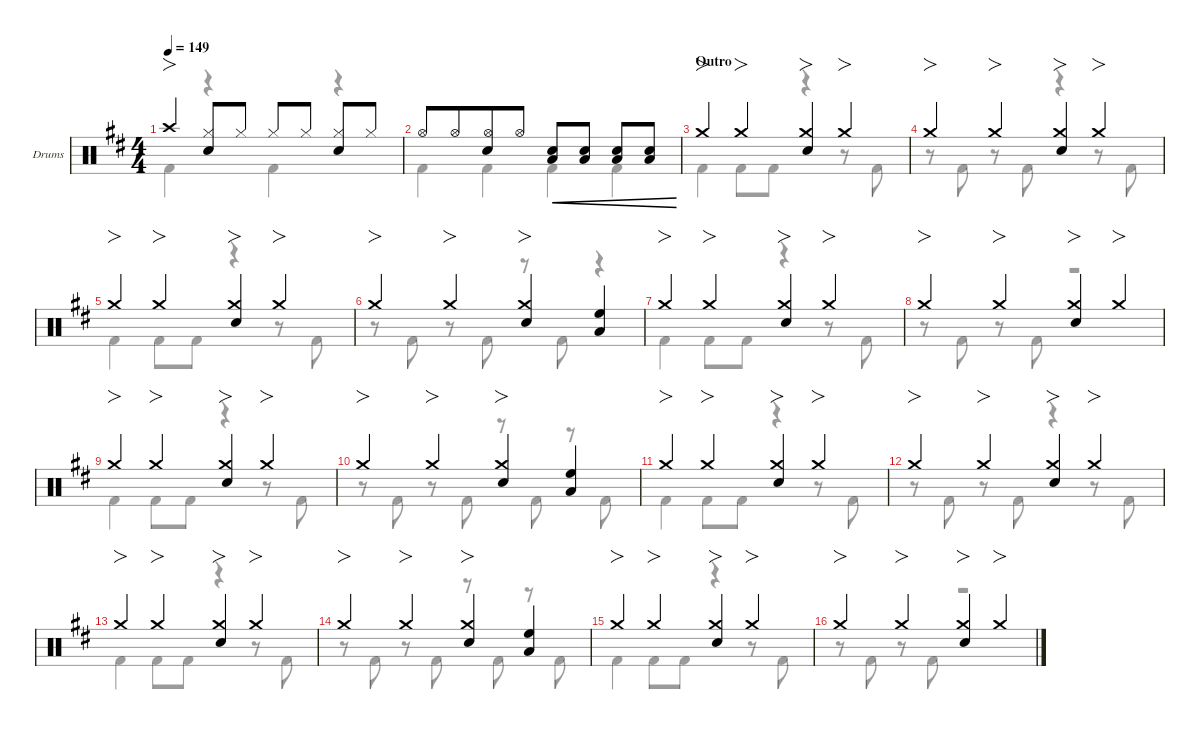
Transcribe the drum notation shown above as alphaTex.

\defaultSystemsLayout 4
\hideDynamics
\bracketExtendMode nobrackets
\firstSystemTrackNameOrientation horizontal
\track ("Drums" "Drums") {defaultSystemsLayout 4 instrument percussion}
\staff {score}
\articulation defaults
\voice
\ts (4 4)
\tempo 149
\clef neutral
\scale
0.511737
\ks d "Crash high (hit)"{acc forcenatural}.4{fo dy f beam Up}
("Hi-Hat (closed)"{acc forcenatural} "Snare (hit) 2"{acc forcenatural}).8{beam Up} "Hi-Hat (closed)"{acc forcenatural}.8{dy mf beam Up} "Hi-Hat (closed)"{acc forcenatural}.8{dy f beam Up} "Hi-Hat (closed)"{acc forcenatural}.8{dy mf beam Up} ("Hi-Hat (closed)"{acc forcenatural} "Snare (hit) 2"{acc forcenatural}).8{dy f beam Up} "Hi-Hat (closed)"{acc forcenatural}.8{dy mf beam Up} |
\scale
0.488263 "Hi-Hat (open)"{acc forcenatural}.8{dy f beam Up beam merge} "Hi-Hat (open)"{acc forcenatural}.8{dy mf beam Up beam merge} ("Hi-Hat (open)"{acc forcenatural} "Snare (hit) 2"{acc forcenatural}).8{dy f beam Up beam merge} "Hi-Hat (open)"{acc forcenatural}.8{dy mf beam Up} ("Snare (hit) 2"{acc forcenatural} "Low Tom (hit)"{acc forcenatural}).8{cre dy mp beam Up} ("Snare (hit) 2"{acc forcenatural} "Low Tom (hit)"{acc forcenatural}).8{cre dy mf beam Up} ("Snare (hit) 2"{acc forcenatural} "Low Tom (hit)"{acc forcenatural}).8{cre dy f beam Up} ("Snare (hit) 2"{acc forcenatural} "Low Tom (hit)"{acc forcenatural}).8{cre beam Up} |
\section ("" "Outro")
\scale
0.267605 "Crash medium (hit)"{acc forcenatural}.4{fo beam Up} "Crash medium (hit)"{acc forcenatural}.4{fo beam Up} ("Crash medium (hit)"{acc forcenatural} "Snare (hit) 2"{acc forcenatural}).4{fo beam Up} "Crash medium (hit)"{acc forcenatural}.4{fo beam Up} |
\scale
0.244132 "Crash medium (hit)"{acc forcenatural}.4{fo beam Up} "Crash medium (hit)"{acc forcenatural}.4{fo beam Up} ("Crash medium (hit)"{acc forcenatural} "Snare (hit) 2"{acc forcenatural}).4{fo beam Up} "Crash medium (hit)"{acc forcenatural}.4{fo beam Up} |
\scale
0.244132 "Crash medium (hit)"{acc forcenatural}.4{fo beam Up} "Crash medium (hit)"{acc forcenatural}.4{fo beam Up} ("Crash medium (hit)"{acc forcenatural} "Snare (hit) 2"{acc forcenatural}).4{fo beam Up} "Crash medium (hit)"{acc forcenatural}.4{fo beam Up} |
\scale
0.244132 "Crash medium (hit)"{acc forcenatural}.4{fo beam Up} "Crash medium (hit)"{acc forcenatural}.4{fo beam Up} ("Crash medium (hit)"{acc forcenatural} "Snare (hit) 2"{acc forcenatural}).4{fo beam Up} ("High Floor Tom (hit)"{acc forcenatural} "Low Tom (hit)"{acc forcenatural}).4{beam Up} |
\scale
0.267605 "Crash medium (hit)"{acc forcenatural}.4{fo beam Up} "Crash medium (hit)"{acc forcenatural}.4{fo beam Up} ("Crash medium (hit)"{acc forcenatural} "Snare (hit) 2"{acc forcenatural}).4{fo beam Up} "Crash medium (hit)"{acc forcenatural}.4{fo beam Up} |
\scale
0.244132 "Crash medium (hit)"{acc forcenatural}.4{fo beam Up} "Crash medium (hit)"{acc forcenatural}.4{fo beam Up} ("Crash medium (hit)"{acc forcenatural} "Snare (hit) 2"{acc forcenatural}).4{fo beam Up} "Crash medium (hit)"{acc forcenatural}.4{fo beam Up} |
\scale
0.244132 "Crash medium (hit)"{acc forcenatural}.4{fo beam Up} "Crash medium (hit)"{acc forcenatural}.4{fo beam Up} ("Crash medium (hit)"{acc forcenatural} "Snare (hit) 2"{acc forcenatural}).4{fo beam Up} "Crash medium (hit)"{acc forcenatural}.4{fo beam Up} |
\scale
0.244132 "Crash medium (hit)"{acc forcenatural}.4{fo beam Up} "Crash medium (hit)"{acc forcenatural}.4{fo beam Up} ("Crash medium (hit)"{acc forcenatural} "Snare (hit) 2"{acc forcenatural}).4{fo beam Up} ("High Floor Tom (hit)"{acc forcenatural} "Low Tom (hit)"{acc forcenatural}).4{beam Up} |
\scale
0.267605 "Crash medium (hit)"{acc forcenatural}.4{fo beam Up} "Crash medium (hit)"{acc forcenatural}.4{fo beam Up} ("Crash medium (hit)"{acc forcenatural} "Snare (hit) 2"{acc forcenatural}).4{fo beam Up} "Crash medium (hit)"{acc forcenatural}.4{fo beam Up} |
\scale
0.244132 "Crash medium (hit)"{acc forcenatural}.4{fo beam Up} "Crash medium (hit)"{acc forcenatural}.4{fo beam Up} ("Crash medium (hit)"{acc forcenatural} "Snare (hit) 2"{acc forcenatural}).4{fo beam Up} "Crash medium (hit)"{acc forcenatural}.4{fo beam Up} |
\scale
0.244132 "Crash medium (hit)"{acc forcenatural}.4{fo beam Up} "Crash medium (hit)"{acc forcenatural}.4{fo beam Up} ("Crash medium (hit)"{acc forcenatural} "Snare (hit) 2"{acc forcenatural}).4{fo beam Up} "Crash medium (hit)"{acc forcenatural}.4{fo beam Up} |
\scale
0.244132 "Crash medium (hit)"{acc forcenatural}.4{fo beam Up} "Crash medium (hit)"{acc forcenatural}.4{fo beam Up} ("Crash medium (hit)"{acc forcenatural} "Snare (hit) 2"{acc forcenatural}).4{fo beam Up} ("High Floor Tom (hit)"{acc forcenatural} "Low Tom (hit)"{acc forcenatural}).4{beam Up} |
\scale
0.267605 "Crash medium (hit)"{acc forcenatural}.4{fo beam Up} "Crash medium (hit)"{acc forcenatural}.4{fo beam Up} ("Crash medium (hit)"{acc forcenatural} "Snare (hit) 2"{acc forcenatural}).4{fo beam Up} "Crash medium (hit)"{acc forcenatural}.4{fo beam Up} |
\scale
0.244132 "Crash medium (hit)"{acc forcenatural}.4{fo beam Up} "Crash medium (hit)"{acc forcenatural}.4{fo beam Up} ("Crash medium (hit)"{acc forcenatural} "Snare (hit) 2"{acc forcenatural}).4{fo beam Up} "Crash medium (hit)"{acc forcenatural}.4{fo beam Up}
\voice
\clef neutral
\ottava regular
\simile none
\scale
0.511737
\ks d "Kick (hit) 2"{acc forcenatural}.4{dy f beam Down}
r.4{beam Down} "Kick (hit) 2"{acc forcenatural}.4{beam Down} r.4{beam Down} |
\scale
0.488263 "Kick (hit) 2"{acc forcenatural}.4{beam Down} "Kick (hit) 2"{acc forcenatural}.4{beam Down} "Kick (hit) 2"{acc forcenatural}.4{beam Down} "Kick (hit) 2"{acc forcenatural}.4{beam Down} |
\scale
0.267605 "Kick (hit) 2"{acc forcenatural}.4{beam Down} "Kick (hit) 2"{acc forcenatural}.8{beam Down} "Kick (hit) 2"{acc forcenatural}.8{beam Down} r.4{beam Down} r.8{beam Down} "Kick (hit) 2"{acc forcenatural}.8{beam Down} |
\scale
0.244132 r.8{beam Down} "Kick (hit) 2"{acc forcenatural}.8{beam Down} r.8{beam Down} "Kick (hit) 2"{acc forcenatural}.8{beam Down} r.4{beam Down} r.8{beam Down} "Kick (hit) 2"{acc forcenatural}.8{beam Down} |
\scale
0.244132 "Kick (hit) 2"{acc forcenatural}.4{beam Down} "Kick (hit) 2"{acc forcenatural}.8{beam Down} "Kick (hit) 2"{acc forcenatural}.8{beam Down} r.4{beam Down} r.8{beam Down} "Kick (hit) 2"{acc forcenatural}.8{beam Down} |
\scale
0.244132 r.8{beam Down} "Kick (hit) 2"{acc forcenatural}.8{beam Down} r.8{beam Down} "Kick (hit) 2"{acc forcenatural}.8{beam Down} r.8{beam Down} "Kick (hit) 2"{acc forcenatural}.8{beam Down} r.4{beam Down} |
\scale
0.267605 "Kick (hit) 2"{acc forcenatural}.4{beam Down} "Kick (hit) 2"{acc forcenatural}.8{beam Down} "Kick (hit) 2"{acc forcenatural}.8{beam Down} r.4{beam Down} r.8{beam Down} "Kick (hit) 2"{acc forcenatural}.8{beam Down} |
\scale
0.244132 r.8{beam Down} "Kick (hit) 2"{acc forcenatural}.8{beam Down} r.8{beam Down} "Kick (hit) 2"{acc forcenatural}.8{beam Down} r.2{beam Down} |
\scale
0.244132 "Kick (hit) 2"{acc forcenatural}.4{beam Down} "Kick (hit) 2"{acc forcenatural}.8{beam Down} "Kick (hit) 2"{acc forcenatural}.8{beam Down} r.4{beam Down} r.8{beam Down} "Kick (hit) 2"{acc forcenatural}.8{beam Down} |
\scale
0.244132 r.8{beam Down} "Kick (hit) 2"{acc forcenatural}.8{beam Down} r.8{beam Down} "Kick (hit) 2"{acc forcenatural}.8{beam Down} r.8{beam Down} "Kick (hit) 2"{acc forcenatural}.8{beam Down} r.8{beam Down} "Kick (hit) 2"{acc forcenatural}.8{beam Down} |
\scale
0.267605 "Kick (hit) 2"{acc forcenatural}.4{beam Down} "Kick (hit) 2"{acc forcenatural}.8{beam Down} "Kick (hit) 2"{acc forcenatural}.8{beam Down} r.4{beam Down} r.8{beam Down} "Kick (hit) 2"{acc forcenatural}.8{beam Down} |
\scale
0.244132 r.8{beam Down} "Kick (hit) 2"{acc forcenatural}.8{beam Down} r.8{beam Down} "Kick (hit) 2"{acc forcenatural}.8{beam Down} r.4{beam Down} r.8{beam Down} "Kick (hit) 2"{acc forcenatural}.8{beam Down} |
\scale
0.244132 "Kick (hit) 2"{acc forcenatural}.4{beam Down} "Kick (hit) 2"{acc forcenatural}.8{beam Down} "Kick (hit) 2"{acc forcenatural}.8{beam Down} r.4{beam Down} r.8{beam Down} "Kick (hit) 2"{acc forcenatural}.8{beam Down} |
\scale
0.244132 r.8{beam Down} "Kick (hit) 2"{acc forcenatural}.8{beam Down} r.8{beam Down} "Kick (hit) 2"{acc forcenatural}.8{beam Down} r.8{beam Down} "Kick (hit) 2"{acc forcenatural}.8{beam Down} r.8{beam Down} "Kick (hit) 2"{acc forcenatural}.8{beam Down} |
\scale
0.267605 "Kick (hit) 2"{acc forcenatural}.4{beam Down} "Kick (hit) 2"{acc forcenatural}.8{beam Down} "Kick (hit) 2"{acc forcenatural}.8{beam Down} r.4{beam Down} r.8{beam Down} "Kick (hit) 2"{acc forcenatural}.8{beam Down} |
\scale
0.244132 r.8{beam Down} "Kick (hit) 2"{acc forcenatural}.8{beam Down} r.8{beam Down} "Kick (hit) 2"{acc forcenatural}.8{beam Down} r.2{beam Down}
